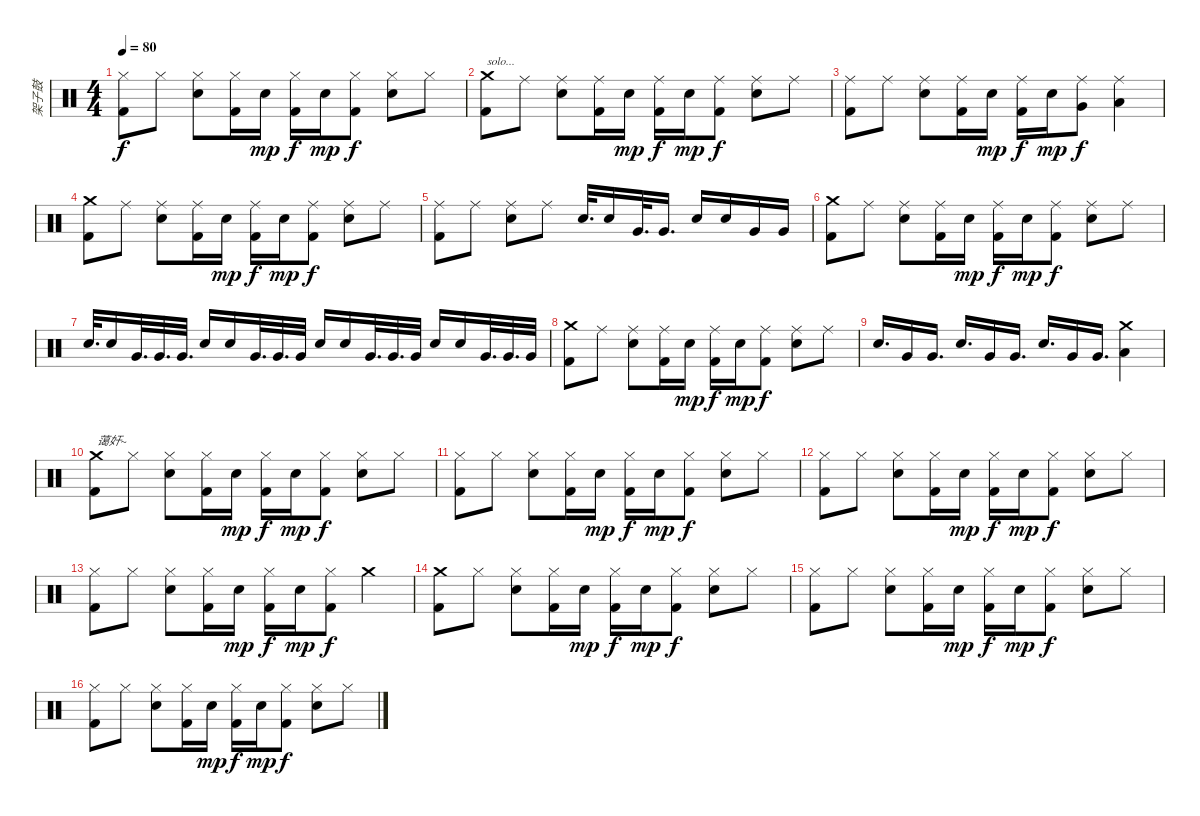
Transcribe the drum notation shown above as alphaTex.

\track ("架子鼓" "架子鼓") {instrument percussion}
\staff {score}
\articulation defaults
\ts (4 4)
\tempo 80
\clef neutral
\ks c
("Hi-Hat (closed)" "Kick (hit) 2").8{dy f} "Hi-Hat (closed)".8 ("Hi-Hat (closed)" "Snare (hit) 2").8 ("Hi-Hat (closed)" "Kick (hit) 2").16 "Snare (hit) 2".16{dy mp} ("Hi-Hat (closed)" "Kick (hit) 2").16{dy f} "Snare (hit) 2".16{dy mp} ("Hi-Hat (closed)" "Kick (hit) 2").8{dy f} ("Hi-Hat (closed)" "Snare (hit) 2").8 "Hi-Hat (closed)".8 |
("Crash medium (hit)" "Kick (hit) 2").8{txt "solo..."} "Ride (middle)".8 ("Ride (middle)" "Snare (hit) 2").8 ("Ride (middle)" "Kick (hit) 2").16 "Snare (hit) 2".16{dy mp} ("Ride (middle)" "Kick (hit) 2").16{dy f} "Snare (hit) 2".16{dy mp} ("Ride (middle)" "Kick (hit) 2").8{dy f} ("Ride (middle)" "Snare (hit) 2").8 "Ride (middle)".8 |
("Ride (middle)" "Kick (hit) 2").8 "Ride (middle)".8 ("Ride (middle)" "Snare (hit) 2").8 ("Ride (middle)" "Kick (hit) 2").16 "Snare (hit) 2".16{dy mp} ("Ride (middle)" "Kick (hit) 2").16{dy f} "Snare (hit) 2".16{dy mp} ("Ride (middle)" "Very Low Tom (hit)").8{dy f} ("Ride (middle)" "Low Floor Tom (hit)").4 |
("Crash medium (hit)" "Kick (hit) 2").8 "Ride (middle)".8 ("Ride (middle)" "Snare (hit) 2").8 ("Ride (middle)" "Kick (hit) 2").16 "Snare (hit) 2".16{dy mp} ("Ride (middle)" "Kick (hit) 2").16{dy f} "Snare (hit) 2".16{dy mp} ("Ride (middle)" "Kick (hit) 2").8{dy f} ("Ride (middle)" "Snare (hit) 2").8 "Ride (middle)".8 |
("Ride (middle)" "Kick (hit) 2").8 "Ride (middle)".8 ("Ride (middle)" "Snare (hit) 2").8 "Ride (middle)".8 "Snare (hit) 2".32{d} "Snare (hit) 2".16 "Very Low Tom (hit)".32{d} "Very Low Tom (hit)".16{d} "Snare (hit) 2".16 "Snare (hit) 2".16 "Very Low Tom (hit)".16 "Very Low Tom (hit)".16 |
("Crash medium (hit)" "Kick (hit) 2").8 "Ride (middle)".8 ("Ride (middle)" "Snare (hit) 2").8 ("Ride (middle)" "Kick (hit) 2").16 "Snare (hit) 2".16{dy mp} ("Ride (middle)" "Kick (hit) 2").16{dy f} "Snare (hit) 2".16{dy mp} ("Ride (middle)" "Kick (hit) 2").8{dy f} ("Ride (middle)" "Snare (hit) 2").8 "Ride (middle)".8 |
"Snare (hit) 2".32{d} "Snare (hit) 2".16 "Very Low Tom (hit)".32{d} "Very Low Tom (hit)".32{d} "Very Low Tom (hit)".32{d} "Snare (hit) 2".16 "Snare (hit) 2".16 "Very Low Tom (hit)".32{d} "Very Low Tom (hit)".32{d} "Very Low Tom (hit)".32 "Snare (hit) 2".16 "Snare (hit) 2".16 "Very Low Tom (hit)".32{d} "Very Low Tom (hit)".32{d} "Very Low Tom (hit)".32 "Snare (hit) 2".16 "Snare (hit) 2".16 "Very Low Tom (hit)".32{d} "Very Low Tom (hit)".32{d} "Very Low Tom (hit)".32 |
("Crash medium (hit)" "Kick (hit) 2").8 "Ride (middle)".8 ("Ride (middle)" "Snare (hit) 2").8 ("Ride (middle)" "Kick (hit) 2").16 "Snare (hit) 2".16{dy mp} ("Ride (middle)" "Kick (hit) 2").16{dy f} "Snare (hit) 2".16{dy mp} ("Ride (middle)" "Kick (hit) 2").8{dy f} ("Ride (middle)" "Snare (hit) 2").8 "Ride (middle)".8 |
"Snare (hit) 2".16{d} "Very Low Tom (hit)".16 "Very Low Tom (hit)".16{d} "Snare (hit) 2".16{d} "Very Low Tom (hit)".16 "Very Low Tom (hit)".16{d} "Snare (hit) 2".16{d} "Very Low Tom (hit)".16 "Very Low Tom (hit)".16{d} ("Crash medium (hit)" "Low Floor Tom (hit)").4 |
("Crash medium (hit)" "Kick (hit) 2").8{txt "蔼奸~"} "Hi-Hat (closed)".8 ("Hi-Hat (closed)" "Snare (hit) 2").8 ("Hi-Hat (closed)" "Kick (hit) 2").16 "Snare (hit) 2".16{dy mp} ("Hi-Hat (closed)" "Kick (hit) 2").16{dy f} "Snare (hit) 2".16{dy mp} ("Hi-Hat (closed)" "Kick (hit) 2").8{dy f} ("Hi-Hat (closed)" "Snare (hit) 2").8 "Hi-Hat (closed)".8 |
("Hi-Hat (closed)" "Kick (hit) 2").8 "Hi-Hat (closed)".8 ("Hi-Hat (closed)" "Snare (hit) 2").8 ("Hi-Hat (closed)" "Kick (hit) 2").16 "Snare (hit) 2".16{dy mp} ("Hi-Hat (closed)" "Kick (hit) 2").16{dy f} "Snare (hit) 2".16{dy mp} ("Hi-Hat (closed)" "Kick (hit) 2").8{dy f} ("Hi-Hat (closed)" "Snare (hit) 2").8 "Hi-Hat (closed)".8 |
("Hi-Hat (closed)" "Kick (hit) 2").8 "Hi-Hat (closed)".8 ("Hi-Hat (closed)" "Snare (hit) 2").8 ("Hi-Hat (closed)" "Kick (hit) 2").16 "Snare (hit) 2".16{dy mp} ("Hi-Hat (closed)" "Kick (hit) 2").16{dy f} "Snare (hit) 2".16{dy mp} ("Hi-Hat (closed)" "Kick (hit) 2").8{dy f} ("Hi-Hat (closed)" "Snare (hit) 2").8 "Hi-Hat (closed)".8 |
("Hi-Hat (closed)" "Kick (hit) 2").8 "Hi-Hat (closed)".8 ("Hi-Hat (closed)" "Snare (hit) 2").8 ("Hi-Hat (closed)" "Kick (hit) 2").16 "Snare (hit) 2".16{dy mp} ("Hi-Hat (closed)" "Kick (hit) 2").16{dy f} "Snare (hit) 2".16{dy mp} ("Hi-Hat (closed)" "Kick (hit) 2").8{dy f} "Crash medium (hit)".4 |
("Crash medium (hit)" "Kick (hit) 2").8 "Hi-Hat (closed)".8 ("Hi-Hat (closed)" "Snare (hit) 2").8 ("Hi-Hat (closed)" "Kick (hit) 2").16 "Snare (hit) 2".16{dy mp} ("Hi-Hat (closed)" "Kick (hit) 2").16{dy f} "Snare (hit) 2".16{dy mp} ("Hi-Hat (closed)" "Kick (hit) 2").8{dy f} ("Hi-Hat (closed)" "Snare (hit) 2").8 "Hi-Hat (closed)".8 |
("Hi-Hat (closed)" "Kick (hit) 2").8 "Hi-Hat (closed)".8 ("Hi-Hat (closed)" "Snare (hit) 2").8 ("Hi-Hat (closed)" "Kick (hit) 2").16 "Snare (hit) 2".16{dy mp} ("Hi-Hat (closed)" "Kick (hit) 2").16{dy f} "Snare (hit) 2".16{dy mp} ("Hi-Hat (closed)" "Kick (hit) 2").8{dy f} ("Hi-Hat (closed)" "Snare (hit) 2").8 "Hi-Hat (closed)".8 |
("Hi-Hat (closed)" "Kick (hit) 2").8 "Hi-Hat (closed)".8 ("Hi-Hat (closed)" "Snare (hit) 2").8 ("Hi-Hat (closed)" "Kick (hit) 2").16 "Snare (hit) 2".16{dy mp} ("Hi-Hat (closed)" "Kick (hit) 2").16{dy f} "Snare (hit) 2".16{dy mp} ("Hi-Hat (closed)" "Kick (hit) 2").8{dy f} ("Hi-Hat (closed)" "Snare (hit) 2").8 "Hi-Hat (closed)".8
